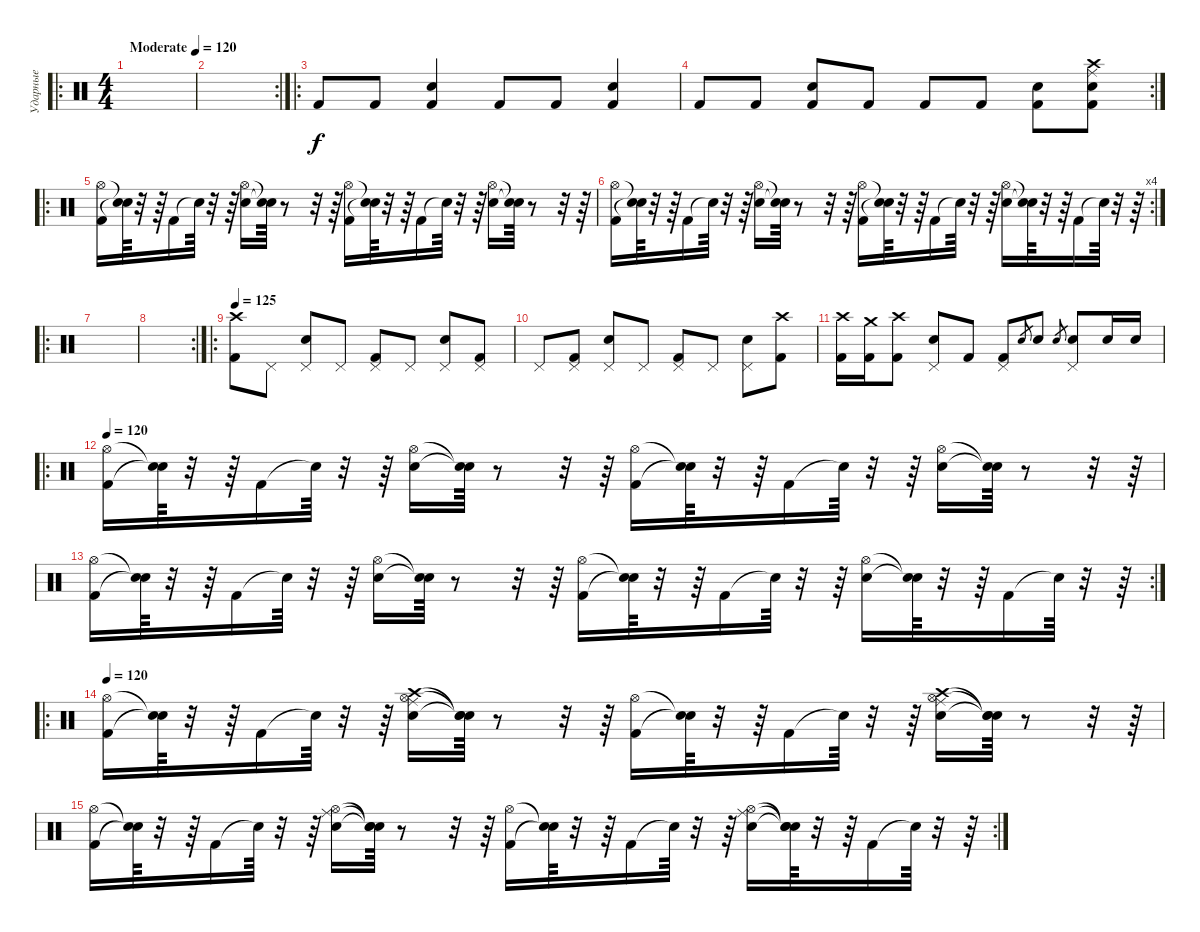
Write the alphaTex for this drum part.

\track ("Ударные" "Ударные") {instrument percussion}
\staff {score}
\articulation defaults
\ro
\ts (4 4)
\tempo (120 "Moderate")
\clef neutral
\ks c
|
\rc 2
|
\ro "Kick (hit) 2".8 "Kick (hit) 2".8
("Electric Snare (hit)" "Kick (hit) 2").4 "Kick (hit) 2".8 "Kick (hit) 2".8 ("Electric Snare (hit)" "Kick (hit) 2").4 |
\rc 2 "Kick (hit) 2".8 "Kick (hit) 2".8
("Electric Snare (hit)" "Kick (hit) 2").8 "Kick (hit) 2".8 "Kick (hit) 2".8 "Kick (hit) 2".8 ("Electric Snare (hit)" "Kick (hit) 2").8 ("Ride (middle)" "Crash high (hit)" "Electric Snare (hit)" "Kick (hit) 2").8 |
\ro
("Hi-Hat (open)" "Kick (hit) 2").16 ("Snare (hit)"{t} "Snare (hit)"{t}).64 r.32 r.64 "Kick (hit) 2".16 "Snare (hit)"{t}.64 r.32 r.64 ("Hi-Hat (open)" "Electric Snare (hit)").16 ("Snare (hit)"{t} "Snare (hit)"{t}).64 r.8 r.32 r.64 ("Hi-Hat (open)" "Kick (hit) 2").16 ("Snare (hit)"{t} "Snare (hit)"{t}).64 r.32 r.64 "Kick (hit) 2".16 "Snare (hit)"{t}.64 r.32 r.64 ("Hi-Hat (open)" "Electric Snare (hit)").16 ("Snare (hit)"{t} "Snare (hit)"{t}).64 r.8 r.32 r.64 |
\rc 4
("Hi-Hat (open)" "Kick (hit) 2").16 ("Snare (hit)"{t} "Snare (hit)"{t}).64 r.32 r.64 "Kick (hit) 2".16 "Snare (hit)"{t}.64 r.32 r.64 ("Hi-Hat (open)" "Electric Snare (hit)").16 ("Snare (hit)"{t} "Snare (hit)"{t}).64 r.8 r.32 r.64 ("Hi-Hat (open)" "Kick (hit) 2").16 ("Snare (hit)"{t} "Snare (hit)"{t}).64 r.32 r.64 "Kick (hit) 2".16 "Snare (hit)"{t}.64 r.32 r.64 ("Hi-Hat (open)" "Electric Snare (hit)").16 ("Snare (hit)"{t} "Snare (hit)"{t}).64 r.32 r.64 "Kick (hit) 2".16 "Snare (hit)"{t}.64 r.32 r.64 |
\ro
|
\rc 2
|
\ro
\tempo 125
("Crash high (hit)" "Kick (hit) 2").8 "Pedal Hi-Hat (hit)".8 ("Pedal Hi-Hat (hit)" "Electric Snare (hit)").8 "Pedal Hi-Hat (hit)".8 ("Pedal Hi-Hat (hit)" "Kick (hit) 2").8 "Pedal Hi-Hat (hit)".8 ("Pedal Hi-Hat (hit)" "Electric Snare (hit)").8 ("Pedal Hi-Hat (hit)" "Kick (hit) 2").8 |
"Pedal Hi-Hat (hit)".8 ("Pedal Hi-Hat (hit)" "Kick (hit) 2").8 ("Pedal Hi-Hat (hit)" "Electric Snare (hit)").8 "Pedal Hi-Hat (hit)".8 ("Pedal Hi-Hat (hit)" "Kick (hit) 2").8 "Pedal Hi-Hat (hit)".8 ("Pedal Hi-Hat (hit)" "Electric Snare (hit)").8 ("Crash high (hit)" "Kick (hit) 2").8 |
("Crash high (hit)" "Kick (hit) 2").16 ("Crash medium (hit)" "Kick (hit) 2").16 ("Crash high (hit)" "Kick (hit) 2").8 ("Pedal Hi-Hat (hit)" "Electric Snare (hit)").8 "Kick (hit) 2".8 ("Pedal Hi-Hat (hit)" "Kick (hit) 2").8 "Electric Snare (hit)".8{gr} "Electric Snare (hit)".8 "Electric Snare (hit)".8{gr} ("Pedal Hi-Hat (hit)" "Electric Snare (hit)").8 "Electric Snare (hit)".16 "Electric Snare (hit)".16 |
\ro
\tempo 120
("Hi-Hat (open)" "Kick (hit) 2").16 ("Snare (hit)"{t} "Snare (hit)"{t}).64 r.32 r.64 "Kick (hit) 2".16 "Snare (hit)"{t}.64 r.32 r.64 ("Hi-Hat (open)" "Electric Snare (hit)").16 ("Snare (hit)"{t} "Snare (hit)"{t}).64 r.8 r.32 r.64 ("Hi-Hat (open)" "Kick (hit) 2").16 ("Snare (hit)"{t} "Snare (hit)"{t}).64 r.32 r.64 "Kick (hit) 2".16 "Snare (hit)"{t}.64 r.32 r.64 ("Hi-Hat (open)" "Electric Snare (hit)").16 ("Snare (hit)"{t} "Snare (hit)"{t}).64 r.8 r.32 r.64 |
\rc 2
("Hi-Hat (open)" "Kick (hit) 2").16 ("Snare (hit)"{t} "Snare (hit)"{t}).64 r.32 r.64 "Kick (hit) 2".16 "Snare (hit)"{t}.64 r.32 r.64 ("Hi-Hat (open)" "Electric Snare (hit)").16 ("Snare (hit)"{t} "Snare (hit)"{t}).64 r.8 r.32 r.64 ("Hi-Hat (open)" "Kick (hit) 2").16 ("Snare (hit)"{t} "Snare (hit)"{t}).64 r.32 r.64 "Kick (hit) 2".16 "Snare (hit)"{t}.64 r.32 r.64 ("Hi-Hat (open)" "Electric Snare (hit)").16 ("Snare (hit)"{t} "Snare (hit)"{t}).64 r.32 r.64 "Kick (hit) 2".16 "Snare (hit)"{t}.64 r.32 r.64 |
\ro
\tempo 120
("Hi-Hat (open)" "Kick (hit) 2").16 ("Snare (hit)"{t} "Snare (hit)"{t}).64 r.32 r.64 "Kick (hit) 2".16 "Snare (hit)"{t}.64 r.32 r.64 ("Hi-Hat (open)" "Electric Snare (hit)" "Crash high (hit)" "Ride (middle)").16 ("Snare (hit)"{t} "Snare (hit)"{t} "Snare (hit)"{t}).64 r.8 r.32 r.64 ("Hi-Hat (open)" "Kick (hit) 2").16 ("Snare (hit)"{t} "Snare (hit)"{t}).64 r.32 r.64 "Kick (hit) 2".16 "Snare (hit)"{t}.64 r.32 r.64 ("Hi-Hat (open)" "Electric Snare (hit)" "Crash high (hit)" "Ride (middle)").16 ("Snare (hit)"{t} "Snare (hit)"{t} "Snare (hit)"{t}).64 r.8 r.32 r.64 |
\rc 2
("Hi-Hat (open)" "Kick (hit) 2").16 ("Snare (hit)"{t} "Snare (hit)"{t}).64 r.32 r.64 "Kick (hit) 2".16 "Snare (hit)"{t}.64 r.32 r.64 ("Hi-Hat (open)" "Electric Snare (hit)" "Ride (middle)").16 ("Snare (hit)"{t} "Snare (hit)"{t} "Snare (hit)"{t}).64 r.8 r.32 r.64 ("Hi-Hat (open)" "Kick (hit) 2").16 ("Snare (hit)"{t} "Snare (hit)"{t}).64 r.32 r.64 "Kick (hit) 2".16 "Snare (hit)"{t}.64 r.32 r.64 ("Hi-Hat (open)" "Electric Snare (hit)" "Ride (middle)").16 ("Snare (hit)"{t} "Snare (hit)"{t} "Snare (hit)"{t}).64 r.32 r.64 "Kick (hit) 2".16 "Snare (hit)"{t}.64 r.32 r.64
